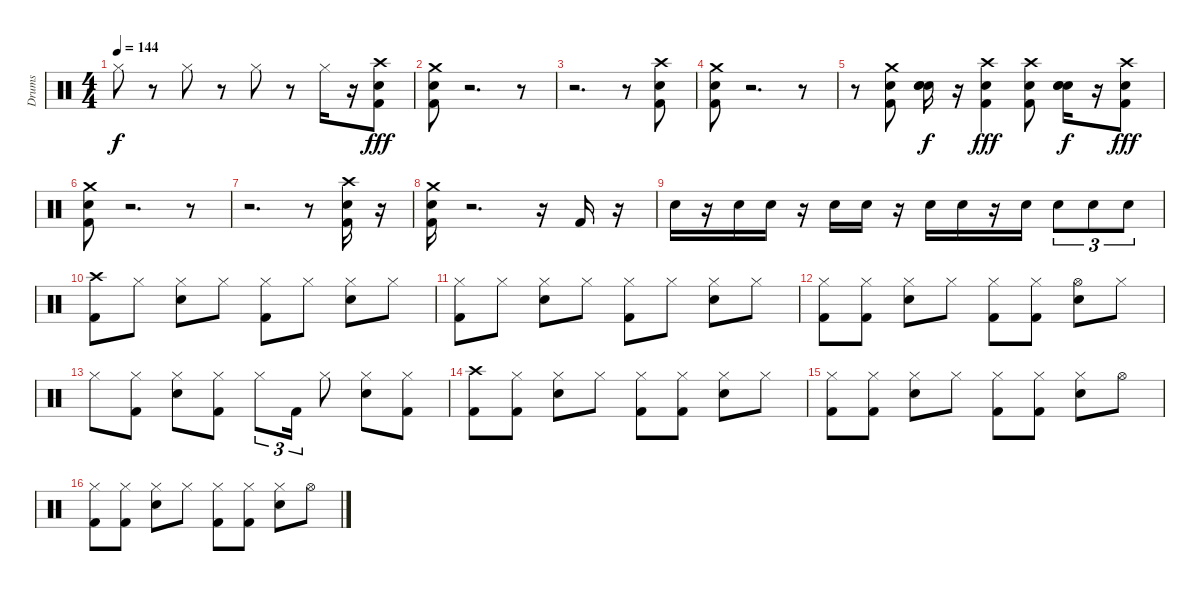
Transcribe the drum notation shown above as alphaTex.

\track ("Drums" "Drums") {instrument percussion}
\staff {score}
\articulation defaults
\ts (4 4)
\tempo 144
\clef neutral
\ks c "Hi-Hat (closed)".8{dy f}
r.8 "Hi-Hat (closed)".8 r.8 "Hi-Hat (closed)".8 r.8 "Hi-Hat (closed)".16 r.16 ("Crash high (hit)" "Snare (hit) 2" "Kick (hit) 2").8{dy fff} |
("Kick (hit) 2" "Snare (hit) 2" "Crash medium (hit)").8 r.2{d} r.8 |
r.2{d} r.8 ("Kick (hit) 2" "Snare (hit) 2" "Crash high (hit)").8 |
("Kick (hit) 2" "Snare (hit) 2" "Crash medium (hit)").8 r.2{d} r.8 |
r.8 ("Kick (hit) 2" "Snare (hit) 2" "Crash medium (hit)").8 ("Snare (hit)" "Snare (hit)" "Snare (hit)").16{dy f} r.16 ("Kick (hit) 2" "Snare (hit) 2" "Crash high (hit)").4{dy fff} ("Kick (hit) 2" "Snare (hit) 2" "Crash high (hit)").8 ("Snare (hit)" "Snare (hit)" "Snare (hit)").16{dy f} r.16 ("Kick (hit) 2" "Snare (hit) 2" "Crash high (hit)").8{dy fff} |
("Kick (hit) 2" "Snare (hit) 2" "Crash medium (hit)").8 r.2{d} r.8 |
r.2{d} r.8 ("Kick (hit) 2" "Snare (hit) 2" "Crash high (hit)").16 r.16 |
("Kick (hit) 2" "Snare (hit) 2" "Crash medium (hit)").16 r.2{d} r.16 "Kick (hit) 2".16 r.16 |
"Snare (hit) 2".16 r.16 "Snare (hit) 2".16 "Snare (hit) 2".16 r.16 "Snare (hit) 2".16 "Snare (hit) 2".16 r.16 "Snare (hit) 2".16 "Snare (hit) 2".16 r.16 "Snare (hit) 2".16 "Snare (hit) 2".8{tu (3 2)} "Snare (hit) 2".8{tu (3 2)} "Snare (hit) 2".8{tu (3 2)} |
("Kick (hit) 2" "Crash high (hit)").8 "Hi-Hat (closed)".8 ("Snare (hit) 2" "Hi-Hat (closed)").8 "Hi-Hat (closed)".8 ("Kick (hit) 2" "Hi-Hat (closed)").8 "Hi-Hat (closed)".8 ("Snare (hit) 2" "Hi-Hat (closed)").8 "Hi-Hat (closed)".8 |
("Kick (hit) 2" "Hi-Hat (closed)").8 "Hi-Hat (closed)".8 ("Snare (hit) 2" "Hi-Hat (closed)").8 "Hi-Hat (closed)".8 ("Kick (hit) 2" "Hi-Hat (closed)").8 "Hi-Hat (closed)".8 ("Snare (hit) 2" "Hi-Hat (closed)").8 "Hi-Hat (closed)".8 |
("Kick (hit) 2" "Hi-Hat (closed)").8 ("Kick (hit) 2" "Hi-Hat (closed)").8 ("Snare (hit) 2" "Hi-Hat (closed)").8 "Hi-Hat (closed)".8 ("Kick (hit) 2" "Hi-Hat (closed)").8 ("Kick (hit) 2" "Hi-Hat (closed)").8 ("Snare (hit) 2" "Hi-Hat (open)").8 "Hi-Hat (closed)".8 |
"Hi-Hat (closed)".8 ("Kick (hit) 2" "Hi-Hat (closed)").8 ("Snare (hit) 2" "Hi-Hat (closed)").8 ("Hi-Hat (closed)" "Kick (hit) 2").8 "Hi-Hat (closed)".8{tu (3 2)} "Kick (hit) 2".16{tu (3 2)} "Hi-Hat (closed)".8 ("Snare (hit) 2" "Hi-Hat (closed)").8 ("Hi-Hat (closed)" "Kick (hit) 2").8 |
("Kick (hit) 2" "Crash high (hit)").8 ("Kick (hit) 2" "Hi-Hat (closed)").8 ("Snare (hit) 2" "Hi-Hat (closed)").8 "Hi-Hat (closed)".8 ("Kick (hit) 2" "Hi-Hat (closed)").8 ("Kick (hit) 2" "Hi-Hat (closed)").8 ("Snare (hit) 2" "Hi-Hat (closed)").8 "Hi-Hat (closed)".8 |
("Kick (hit) 2" "Hi-Hat (closed)").8 ("Kick (hit) 2" "Hi-Hat (closed)").8 ("Snare (hit) 2" "Hi-Hat (closed)").8 "Hi-Hat (closed)".8 ("Kick (hit) 2" "Hi-Hat (closed)").8 ("Kick (hit) 2" "Hi-Hat (closed)").8 ("Snare (hit) 2" "Hi-Hat (closed)").8 "Hi-Hat (open)".8 |
("Hi-Hat (closed)" "Kick (hit) 2").8 ("Kick (hit) 2" "Hi-Hat (closed)").8 ("Snare (hit) 2" "Hi-Hat (closed)").8 "Hi-Hat (closed)".8 ("Kick (hit) 2" "Hi-Hat (closed)").8 ("Kick (hit) 2" "Hi-Hat (closed)").8 ("Snare (hit) 2" "Hi-Hat (closed)").8 "Hi-Hat (open)".8
